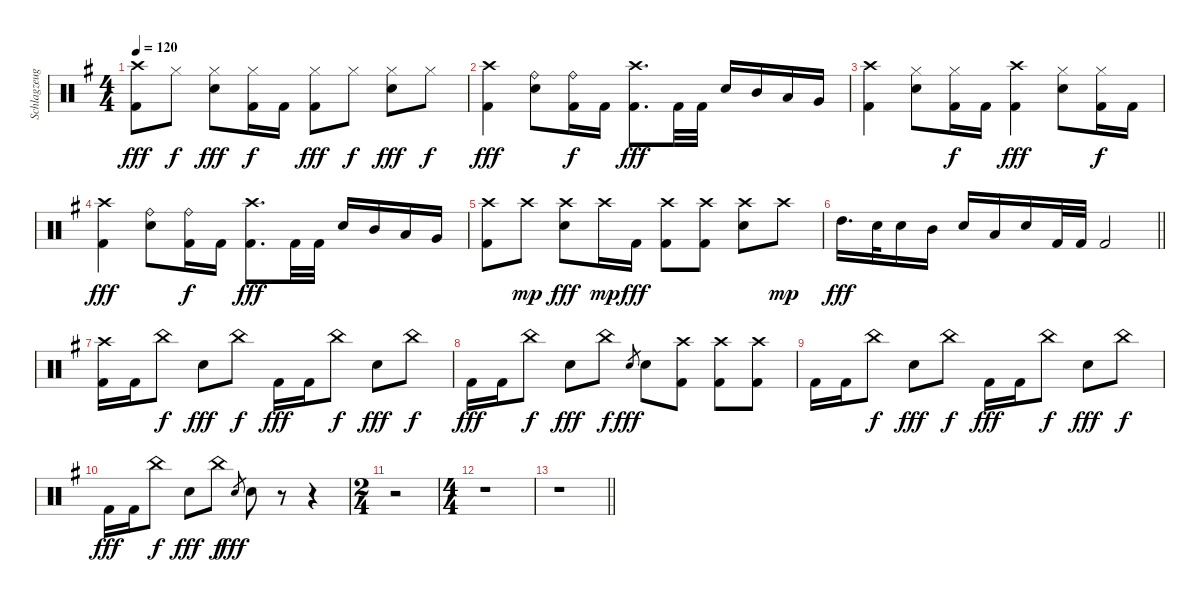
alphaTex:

\track ("Schlagzeug" "Schlagzeug") {instrument percussion}
\staff {score}
\articulation defaults
\ts (4 4)
\tempo 120
\clef neutral
\ks eminor
("Crash high (hit)" "Kick (hit) 2").8{dy fff} "Hi-Hat (closed)".8{dy f} ("Hi-Hat (closed)" "Snare (hit) 2").8{dy fff} ("Hi-Hat (closed)" "Kick (hit) 2").16{dy f} "Kick (hit) 2".16 ("Hi-Hat (closed)" "Kick (hit) 2").8{dy fff} "Hi-Hat (closed)".8{dy f} ("Hi-Hat (closed)" "Snare (hit) 2").8{dy fff} "Hi-Hat (closed)".8{dy f} |
("Crash high (hit)" "Kick (hit) 2").4{dy fff} ("Ride (bell)" "Snare (hit) 2").8 ("Ride (bell)" "Kick (hit) 2").16{dy f} "Kick (hit) 2".16 ("Crash high (hit)" "Kick (hit) 2").8{d dy fff} "Kick (hit) 2".32 "Kick (hit) 2".32 "Snare (hit) 2".16 "Mid Tom (hit)".16 "Low Tom (hit)".16 "Very Low Tom (hit)".16 |
("Crash high (hit)" "Kick (hit) 2").4 ("Hi-Hat (closed)" "Snare (hit) 2").8 ("Hi-Hat (closed)" "Kick (hit) 2").16{dy f} "Kick (hit) 2".16 ("Crash high (hit)" "Kick (hit) 2").4{dy fff} ("Hi-Hat (closed)" "Snare (hit) 2").8 ("Hi-Hat (closed)" "Kick (hit) 2").16{dy f} "Kick (hit) 2".16 |
("Crash high (hit)" "Kick (hit) 2").4{dy fff} ("Ride (bell)" "Snare (hit) 2").8 ("Ride (bell)" "Kick (hit) 2").16{dy f} "Kick (hit) 2".16 ("Crash high (hit)" "Kick (hit) 2").8{d dy fff} "Kick (hit) 2".32 "Kick (hit) 2".32 "Snare (hit) 2".16 "Mid Tom (hit)".16 "Low Tom (hit)".16 "Very Low Tom (hit)".16 |
("Crash high (hit)" "Kick (hit) 2").8 "Crash high (hit)".8{dy mp} ("Crash high (hit)" "Snare (hit) 2").8{dy fff} "Crash high (hit)".16{dy mp} "Kick (hit) 2".16{dy fff} ("Crash high (hit)" "Kick (hit) 2").8 ("Crash high (hit)" "Kick (hit) 2").8 ("Crash high (hit)" "Snare (hit) 2").8 "Crash high (hit)".8{dy mp} |
\barLineRight lightlight "High Tom (hit)".16{d dy fff} "Snare (hit) 2".32 "Snare (hit) 2".16 "Mid Tom (hit)".16 "Snare (hit) 2".16 "Low Tom (hit)".16 "Snare (hit) 2".16 "Kick (hit) 2".32 "Kick (hit) 2".32 "Kick (hit) 2".2
|
("Crash high (hit)" "Kick (hit) 2").16 "Kick (hit) 2".16 "China (hit)".8{dy f} "Snare (hit) 2".8{dy fff} "China (hit)".8{dy f} "Kick (hit) 2".16{dy fff} "Kick (hit) 2".16 "China (hit)".8{dy f} "Snare (hit) 2".8{dy fff} "China (hit)".8{dy f} |
"Kick (hit) 2".16{dy fff} "Kick (hit) 2".16 "China (hit)".8{dy f} "Snare (hit) 2".8{dy fff} "China (hit)".8{dy f} "Snare (hit) 2".8{gr dy fff} "Snare (hit) 2".8 ("Crash high (hit)" "Kick (hit) 2").8 ("Crash high (hit)" "Kick (hit) 2").8 ("Crash high (hit)" "Kick (hit) 2").8 |
"Kick (hit) 2".16 "Kick (hit) 2".16 "China (hit)".8{dy f} "Snare (hit) 2".8{dy fff} "China (hit)".8{dy f} "Kick (hit) 2".16{dy fff} "Kick (hit) 2".16 "China (hit)".8{dy f} "Snare (hit) 2".8{dy fff} "China (hit)".8{dy f} |
"Kick (hit) 2".16{dy fff} "Kick (hit) 2".16 "China (hit)".8{dy f} "Snare (hit) 2".8{dy fff} "China (hit)".8{dy f} "Snare (hit) 2".8{gr dy fff} "Snare (hit) 2".8 r.8 r.4 |
\ts (2 4)
r.2 |
\ts (4 4)
r.1 |
\barLineRight lightlight
r.1
